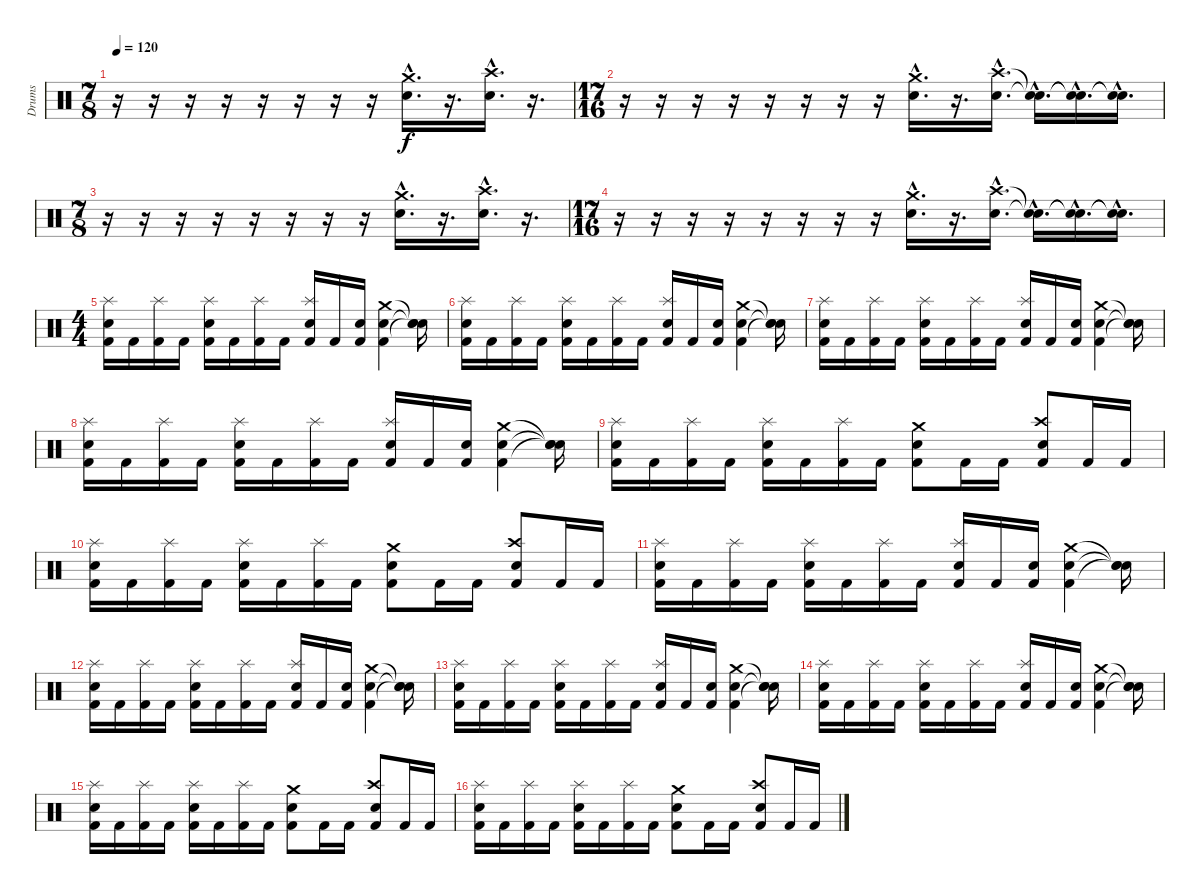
\track ("Drums" "Drums") {instrument percussion}
\staff {score}
\articulation defaults
\ts (7 8)
\tempo 120
\clef neutral
\ks c
r.16{dy f} r.16 r.16 r.16 r.16 r.16 r.16 r.16 ("Crash medium (hit)"{hac} "Snare (hit) 2"{hac}).16{d} r.16{d} ("Crash high (hit)"{hac} "Snare (hit) 2"{hac}).16{d} r.16{d} |
\ts (17 16)
r.16 r.16 r.16 r.16 r.16 r.16 r.16 r.16 ("Crash medium (hit)"{hac} "Snare (hit) 2"{hac}).16{d} r.16{d} ("Crash high (hit)"{hac} "Snare (hit) 2"{hac}).16{d} ("Snare (hit)"{hac t} "Snare (hit)"{hac t}).16{d} ("Snare (hit)"{hac t} "Snare (hit)"{hac t}).16{d} ("Snare (hit)"{hac t} "Snare (hit)"{hac t}).16{d} |
\ts (7 8)
r.16 r.16 r.16 r.16 r.16 r.16 r.16 r.16 ("Crash medium (hit)"{hac} "Snare (hit) 2"{hac}).16{d} r.16{d} ("Crash high (hit)"{hac} "Snare (hit) 2"{hac}).16{d} r.16{d} |
\ts (17 16)
r.16 r.16 r.16 r.16 r.16 r.16 r.16 r.16 ("Crash medium (hit)"{hac} "Snare (hit) 2"{hac}).16{d} r.16{d} ("Crash high (hit)"{hac} "Snare (hit) 2"{hac}).16{d} ("Snare (hit)"{hac t} "Snare (hit)"{hac t}).16{d} ("Snare (hit)"{hac t} "Snare (hit)"{hac t}).16{d} ("Snare (hit)"{hac t} "Snare (hit)"{hac t}).16{d} |
\ts (4 4)
("Splash (hit)" "Snare (hit) 2" "Kick (hit) 2").16 "Kick (hit) 2".16 ("Splash (hit)" "Kick (hit) 2").16 "Kick (hit) 2".16 ("Splash (hit)" "Snare (hit) 2" "Kick (hit) 2").16 "Kick (hit) 2".16 ("Splash (hit)" "Kick (hit) 2").16 "Kick (hit) 2".16 ("Splash (hit)" "Snare (hit) 2" "Kick (hit) 2").16 "Kick (hit) 2".16 ("Snare (hit) 2" "Kick (hit) 2").16 ("Crash medium (hit)" "Snare (hit) 2" "Kick (hit) 2").4 ("Snare (hit)"{t} "Snare (hit)"{t} "Snare (hit)"{t}).16 |
("Splash (hit)" "Snare (hit) 2" "Kick (hit) 2").16 "Kick (hit) 2".16 ("Splash (hit)" "Kick (hit) 2").16 "Kick (hit) 2".16 ("Splash (hit)" "Snare (hit) 2" "Kick (hit) 2").16 "Kick (hit) 2".16 ("Splash (hit)" "Kick (hit) 2").16 "Kick (hit) 2".16 ("Splash (hit)" "Snare (hit) 2" "Kick (hit) 2").16 "Kick (hit) 2".16 ("Snare (hit) 2" "Kick (hit) 2").16 ("Crash medium (hit)" "Snare (hit) 2" "Kick (hit) 2").4 ("Snare (hit)"{t} "Snare (hit)"{t} "Snare (hit)"{t}).16 |
("Splash (hit)" "Snare (hit) 2" "Kick (hit) 2").16 "Kick (hit) 2".16 ("Splash (hit)" "Kick (hit) 2").16 "Kick (hit) 2".16 ("Splash (hit)" "Snare (hit) 2" "Kick (hit) 2").16 "Kick (hit) 2".16 ("Splash (hit)" "Kick (hit) 2").16 "Kick (hit) 2".16 ("Splash (hit)" "Snare (hit) 2" "Kick (hit) 2").16 "Kick (hit) 2".16 ("Snare (hit) 2" "Kick (hit) 2").16 ("Crash medium (hit)" "Snare (hit) 2" "Kick (hit) 2").4 ("Snare (hit)"{t} "Snare (hit)"{t} "Snare (hit)"{t}).16 |
("Splash (hit)" "Snare (hit) 2" "Kick (hit) 2").16 "Kick (hit) 2".16 ("Splash (hit)" "Kick (hit) 2").16 "Kick (hit) 2".16 ("Splash (hit)" "Snare (hit) 2" "Kick (hit) 2").16 "Kick (hit) 2".16 ("Splash (hit)" "Kick (hit) 2").16 "Kick (hit) 2".16 ("Splash (hit)" "Snare (hit) 2" "Kick (hit) 2").16 "Kick (hit) 2".16 ("Snare (hit) 2" "Kick (hit) 2").16 ("Crash medium (hit)" "Snare (hit) 2" "Kick (hit) 2").4 ("Snare (hit)"{t} "Snare (hit)"{t} "Snare (hit)"{t}).16 |
("Splash (hit)" "Snare (hit) 2" "Kick (hit) 2").16 "Kick (hit) 2".16 ("Splash (hit)" "Kick (hit) 2").16 "Kick (hit) 2".16 ("Splash (hit)" "Snare (hit) 2" "Kick (hit) 2").16 "Kick (hit) 2".16 ("Splash (hit)" "Kick (hit) 2").16 "Kick (hit) 2".16 ("Crash medium (hit)" "Snare (hit) 2" "Kick (hit) 2").8 "Kick (hit) 2".16 "Kick (hit) 2".16 ("Crash high (hit)" "Snare (hit) 2" "Kick (hit) 2").8 "Kick (hit) 2".16 "Kick (hit) 2".16 |
("Splash (hit)" "Snare (hit) 2" "Kick (hit) 2").16 "Kick (hit) 2".16 ("Splash (hit)" "Kick (hit) 2").16 "Kick (hit) 2".16 ("Splash (hit)" "Snare (hit) 2" "Kick (hit) 2").16 "Kick (hit) 2".16 ("Splash (hit)" "Kick (hit) 2").16 "Kick (hit) 2".16 ("Crash medium (hit)" "Snare (hit) 2" "Kick (hit) 2").8 "Kick (hit) 2".16 "Kick (hit) 2".16 ("Crash high (hit)" "Snare (hit) 2" "Kick (hit) 2").8 "Kick (hit) 2".16 "Kick (hit) 2".16 |
("Splash (hit)" "Snare (hit) 2" "Kick (hit) 2").16 "Kick (hit) 2".16 ("Splash (hit)" "Kick (hit) 2").16 "Kick (hit) 2".16 ("Splash (hit)" "Snare (hit) 2" "Kick (hit) 2").16 "Kick (hit) 2".16 ("Splash (hit)" "Kick (hit) 2").16 "Kick (hit) 2".16 ("Splash (hit)" "Snare (hit) 2" "Kick (hit) 2").16 "Kick (hit) 2".16 ("Snare (hit) 2" "Kick (hit) 2").16 ("Crash medium (hit)" "Snare (hit) 2" "Kick (hit) 2").4 ("Snare (hit)"{t} "Snare (hit)"{t} "Snare (hit)"{t}).16 |
("Splash (hit)" "Snare (hit) 2" "Kick (hit) 2").16 "Kick (hit) 2".16 ("Splash (hit)" "Kick (hit) 2").16 "Kick (hit) 2".16 ("Splash (hit)" "Snare (hit) 2" "Kick (hit) 2").16 "Kick (hit) 2".16 ("Splash (hit)" "Kick (hit) 2").16 "Kick (hit) 2".16 ("Splash (hit)" "Snare (hit) 2" "Kick (hit) 2").16 "Kick (hit) 2".16 ("Snare (hit) 2" "Kick (hit) 2").16 ("Crash medium (hit)" "Snare (hit) 2" "Kick (hit) 2").4 ("Snare (hit)"{t} "Snare (hit)"{t} "Snare (hit)"{t}).16 |
("Splash (hit)" "Snare (hit) 2" "Kick (hit) 2").16 "Kick (hit) 2".16 ("Splash (hit)" "Kick (hit) 2").16 "Kick (hit) 2".16 ("Splash (hit)" "Snare (hit) 2" "Kick (hit) 2").16 "Kick (hit) 2".16 ("Splash (hit)" "Kick (hit) 2").16 "Kick (hit) 2".16 ("Splash (hit)" "Snare (hit) 2" "Kick (hit) 2").16 "Kick (hit) 2".16 ("Snare (hit) 2" "Kick (hit) 2").16 ("Crash medium (hit)" "Snare (hit) 2" "Kick (hit) 2").4 ("Snare (hit)"{t} "Snare (hit)"{t} "Snare (hit)"{t}).16 |
("Splash (hit)" "Snare (hit) 2" "Kick (hit) 2").16 "Kick (hit) 2".16 ("Splash (hit)" "Kick (hit) 2").16 "Kick (hit) 2".16 ("Splash (hit)" "Snare (hit) 2" "Kick (hit) 2").16 "Kick (hit) 2".16 ("Splash (hit)" "Kick (hit) 2").16 "Kick (hit) 2".16 ("Splash (hit)" "Snare (hit) 2" "Kick (hit) 2").16 "Kick (hit) 2".16 ("Snare (hit) 2" "Kick (hit) 2").16 ("Crash medium (hit)" "Snare (hit) 2" "Kick (hit) 2").4 ("Snare (hit)"{t} "Snare (hit)"{t} "Snare (hit)"{t}).16 |
("Splash (hit)" "Snare (hit) 2" "Kick (hit) 2").16 "Kick (hit) 2".16 ("Splash (hit)" "Kick (hit) 2").16 "Kick (hit) 2".16 ("Splash (hit)" "Snare (hit) 2" "Kick (hit) 2").16 "Kick (hit) 2".16 ("Splash (hit)" "Kick (hit) 2").16 "Kick (hit) 2".16 ("Crash medium (hit)" "Snare (hit) 2" "Kick (hit) 2").8 "Kick (hit) 2".16 "Kick (hit) 2".16 ("Crash high (hit)" "Snare (hit) 2" "Kick (hit) 2").8 "Kick (hit) 2".16 "Kick (hit) 2".16 |
("Splash (hit)" "Snare (hit) 2" "Kick (hit) 2").16 "Kick (hit) 2".16 ("Splash (hit)" "Kick (hit) 2").16 "Kick (hit) 2".16 ("Splash (hit)" "Snare (hit) 2" "Kick (hit) 2").16 "Kick (hit) 2".16 ("Splash (hit)" "Kick (hit) 2").16 "Kick (hit) 2".16 ("Crash medium (hit)" "Snare (hit) 2" "Kick (hit) 2").8 "Kick (hit) 2".16 "Kick (hit) 2".16 ("Crash high (hit)" "Snare (hit) 2" "Kick (hit) 2").8 "Kick (hit) 2".16 "Kick (hit) 2".16
